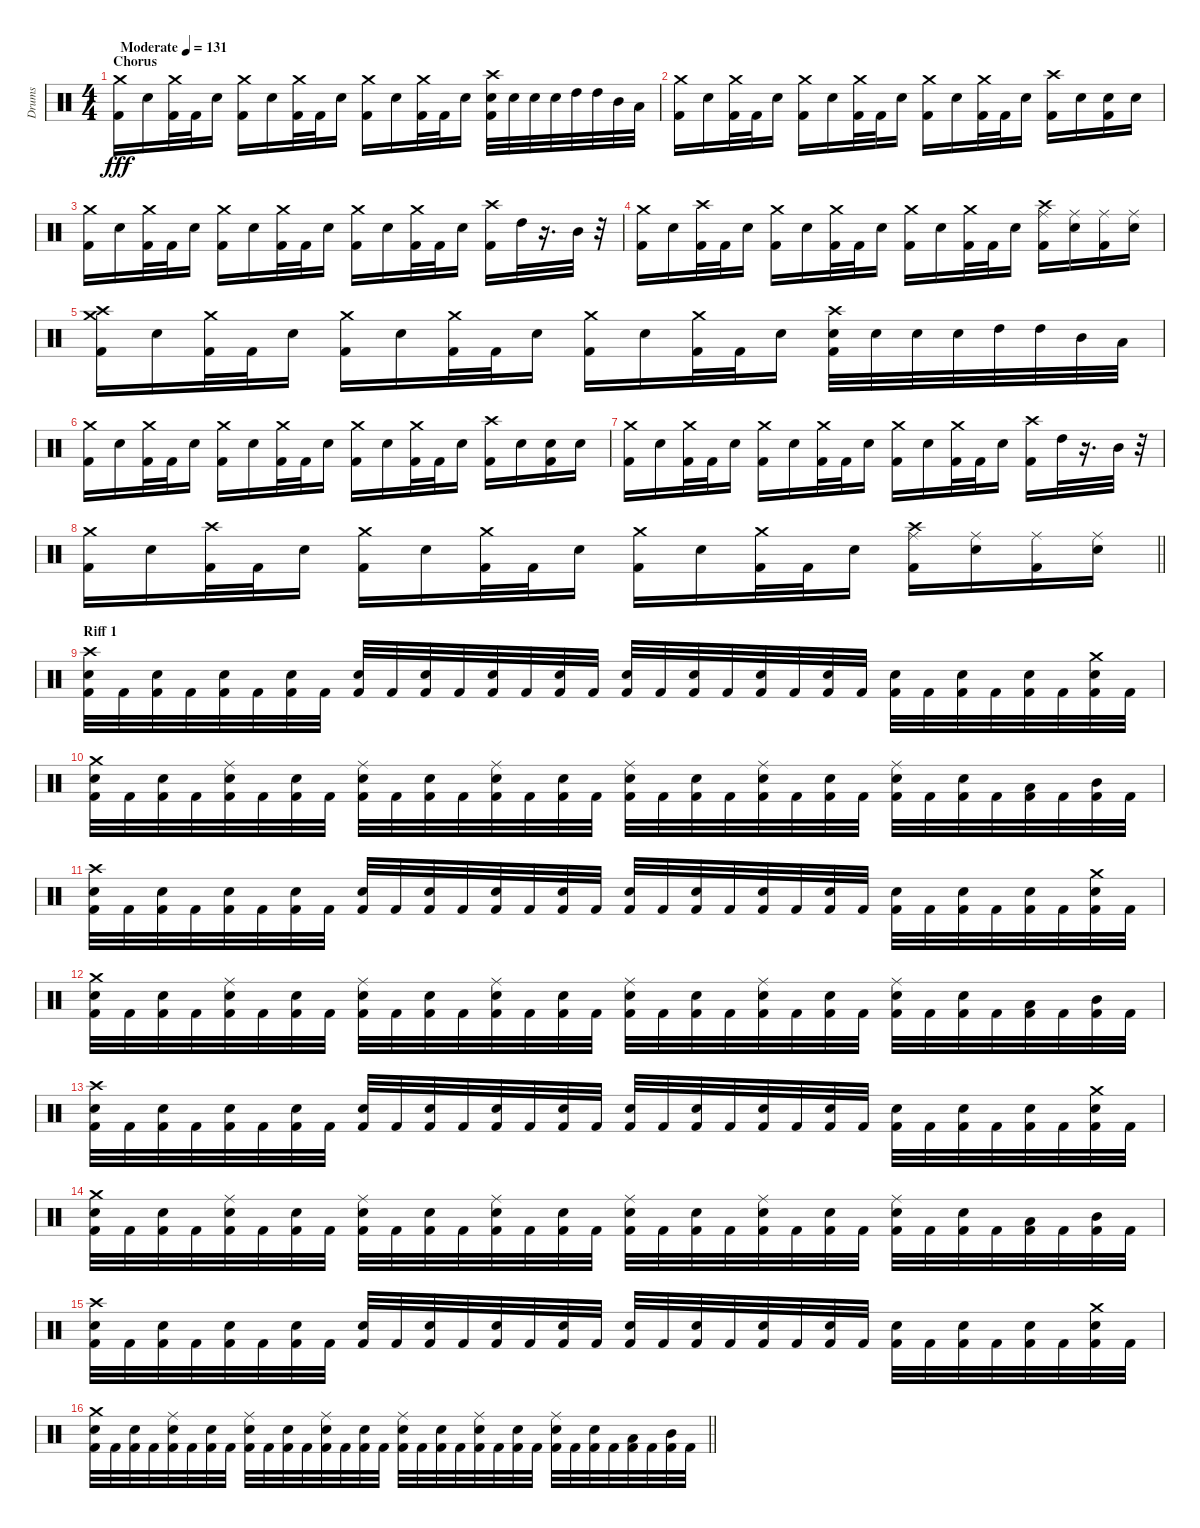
\track ("Drums" "Drums") {instrument percussion}
\staff {score}
\articulation defaults
\ts (4 4)
\section ("" "Chorus")
\tempo (131 "Moderate")
\clef neutral
\ks c
("Crash medium (hit)" "Kick (hit) 2").16{dy fff} "Snare (hit) 2".16 ("Crash medium (hit)" "Kick (hit) 2").32 "Kick (hit) 2".32 "Snare (hit) 2".16 ("Crash medium (hit)" "Kick (hit) 2").16 "Snare (hit) 2".16 ("Crash medium (hit)" "Kick (hit) 2").32 "Kick (hit) 2".32 "Snare (hit) 2".16 ("Crash medium (hit)" "Kick (hit) 2").16 "Snare (hit) 2".16 ("Crash medium (hit)" "Kick (hit) 2").32 "Kick (hit) 2".32 "Snare (hit) 2".16 ("Crash high (hit)" "Kick (hit) 2" "Snare (hit) 2").32 "Snare (hit) 2".32 "Snare (hit) 2".32 "Snare (hit) 2".32 "High Tom (hit)".32 "High Tom (hit)".32 "Mid Tom (hit)".32 "Low Tom (hit)".32 |
("Crash medium (hit)" "Kick (hit) 2").16 "Snare (hit) 2".16 ("Crash medium (hit)" "Kick (hit) 2").32 "Kick (hit) 2".32 "Snare (hit) 2".16 ("Crash medium (hit)" "Kick (hit) 2").16 "Snare (hit) 2".16 ("Crash medium (hit)" "Kick (hit) 2").32 "Kick (hit) 2".32 "Snare (hit) 2".16 ("Crash medium (hit)" "Kick (hit) 2").16 "Snare (hit) 2".16 ("Crash medium (hit)" "Kick (hit) 2").32 "Kick (hit) 2".32 "Snare (hit) 2".16 ("Crash high (hit)" "Kick (hit) 2").16 "Snare (hit) 2".16 ("Kick (hit) 2" "Snare (hit) 2").16 "Snare (hit) 2".16 |
("Crash medium (hit)" "Kick (hit) 2").16 "Snare (hit) 2".16 ("Crash medium (hit)" "Kick (hit) 2").32 "Kick (hit) 2".32 "Snare (hit) 2".16 ("Crash medium (hit)" "Kick (hit) 2").16 "Snare (hit) 2".16 ("Crash medium (hit)" "Kick (hit) 2").32 "Kick (hit) 2".32 "Snare (hit) 2".16 ("Crash medium (hit)" "Kick (hit) 2").16 "Snare (hit) 2".16 ("Crash medium (hit)" "Kick (hit) 2").32 "Kick (hit) 2".32 "Snare (hit) 2".16 ("Crash high (hit)" "Kick (hit) 2").16 "High Tom (hit)".32 r.16{d} "Mid Tom (hit)".32 r.32 |
("Crash medium (hit)" "Kick (hit) 2").16 "Snare (hit) 2".16 ("Crash high (hit)" "Kick (hit) 2").32 "Kick (hit) 2".32 "Snare (hit) 2".16 ("Crash medium (hit)" "Kick (hit) 2").16 "Snare (hit) 2".16 ("Crash medium (hit)" "Kick (hit) 2").32 "Kick (hit) 2".32 "Snare (hit) 2".16 ("Crash medium (hit)" "Kick (hit) 2").16 "Snare (hit) 2".16 ("Crash medium (hit)" "Kick (hit) 2").32 "Kick (hit) 2".32 "Snare (hit) 2".16 ("Crash high (hit)" "Kick (hit) 2" "Ride (middle)").16 ("Snare (hit) 2" "Ride (middle)").16 ("Kick (hit) 2" "Ride (middle)").16 ("Snare (hit) 2" "Ride (middle)").16 |
("Crash high (hit)" "Crash medium (hit)" "Kick (hit) 2").16 "Snare (hit) 2".16 ("Crash medium (hit)" "Kick (hit) 2").32 "Kick (hit) 2".32 "Snare (hit) 2".16 ("Crash medium (hit)" "Kick (hit) 2").16 "Snare (hit) 2".16 ("Crash medium (hit)" "Kick (hit) 2").32 "Kick (hit) 2".32 "Snare (hit) 2".16 ("Crash medium (hit)" "Kick (hit) 2").16 "Snare (hit) 2".16 ("Crash medium (hit)" "Kick (hit) 2").32 "Kick (hit) 2".32 "Snare (hit) 2".16 ("Crash high (hit)" "Kick (hit) 2" "Snare (hit) 2").32 "Snare (hit) 2".32 "Snare (hit) 2".32 "Snare (hit) 2".32 "High Tom (hit)".32 "High Tom (hit)".32 "Mid Tom (hit)".32 "Low Tom (hit)".32 |
("Crash medium (hit)" "Kick (hit) 2").16 "Snare (hit) 2".16 ("Crash medium (hit)" "Kick (hit) 2").32 "Kick (hit) 2".32 "Snare (hit) 2".16 ("Crash medium (hit)" "Kick (hit) 2").16 "Snare (hit) 2".16 ("Crash medium (hit)" "Kick (hit) 2").32 "Kick (hit) 2".32 "Snare (hit) 2".16 ("Crash medium (hit)" "Kick (hit) 2").16 "Snare (hit) 2".16 ("Crash medium (hit)" "Kick (hit) 2").32 "Kick (hit) 2".32 "Snare (hit) 2".16 ("Crash high (hit)" "Kick (hit) 2").16 "Snare (hit) 2".16 ("Kick (hit) 2" "Snare (hit) 2").16 "Snare (hit) 2".16 |
("Crash medium (hit)" "Kick (hit) 2").16 "Snare (hit) 2".16 ("Crash medium (hit)" "Kick (hit) 2").32 "Kick (hit) 2".32 "Snare (hit) 2".16 ("Crash medium (hit)" "Kick (hit) 2").16 "Snare (hit) 2".16 ("Crash medium (hit)" "Kick (hit) 2").32 "Kick (hit) 2".32 "Snare (hit) 2".16 ("Crash medium (hit)" "Kick (hit) 2").16 "Snare (hit) 2".16 ("Crash medium (hit)" "Kick (hit) 2").32 "Kick (hit) 2".32 "Snare (hit) 2".16 ("Crash high (hit)" "Kick (hit) 2").16 "High Tom (hit)".32 r.16{d} "Mid Tom (hit)".32 r.32 |
\barLineRight lightlight
("Crash medium (hit)" "Kick (hit) 2").16 "Snare (hit) 2".16 ("Crash high (hit)" "Kick (hit) 2").32 "Kick (hit) 2".32 "Snare (hit) 2".16 ("Crash medium (hit)" "Kick (hit) 2").16 "Snare (hit) 2".16 ("Crash medium (hit)" "Kick (hit) 2").32 "Kick (hit) 2".32 "Snare (hit) 2".16 ("Crash medium (hit)" "Kick (hit) 2").16 "Snare (hit) 2".16 ("Crash medium (hit)" "Kick (hit) 2").32 "Kick (hit) 2".32 "Snare (hit) 2".16 ("Crash high (hit)" "Kick (hit) 2" "Ride (middle)").16 ("Snare (hit) 2" "Ride (middle)").16 ("Kick (hit) 2" "Ride (middle)").16 ("Snare (hit) 2" "Ride (middle)").16 |
\section ("" "Riff 1")
("Crash high (hit)" "Kick (hit) 2" "Snare (hit) 2").32 "Kick (hit) 2".32 ("Kick (hit) 2" "Snare (hit) 2").32 "Kick (hit) 2".32 ("Kick (hit) 2" "Snare (hit) 2").32 "Kick (hit) 2".32 ("Kick (hit) 2" "Snare (hit) 2").32 "Kick (hit) 2".32 ("Kick (hit) 2" "Snare (hit) 2").32 "Kick (hit) 2".32 ("Kick (hit) 2" "Snare (hit) 2").32 "Kick (hit) 2".32 ("Kick (hit) 2" "Snare (hit) 2").32 "Kick (hit) 2".32 ("Kick (hit) 2" "Snare (hit) 2").32 "Kick (hit) 2".32 ("Kick (hit) 2" "Snare (hit) 2").32 "Kick (hit) 2".32 ("Kick (hit) 2" "Snare (hit) 2").32 "Kick (hit) 2".32 ("Kick (hit) 2" "Snare (hit) 2").32 "Kick (hit) 2".32 ("Kick (hit) 2" "Snare (hit) 2").32 "Kick (hit) 2".32 ("Kick (hit) 2" "Snare (hit) 2").32 "Kick (hit) 2".32 ("Kick (hit) 2" "Snare (hit) 2").32 "Kick (hit) 2".32 ("Kick (hit) 2" "Snare (hit) 2").32 "Kick (hit) 2".32 ("Crash medium (hit)" "Kick (hit) 2" "Snare (hit) 2").32 "Kick (hit) 2".32 |
("Crash medium (hit)" "Kick (hit) 2" "Snare (hit) 2").32 "Kick (hit) 2".32 ("Kick (hit) 2" "Snare (hit) 2").32 "Kick (hit) 2".32 ("Kick (hit) 2" "Snare (hit) 2" "Ride (middle)").32 "Kick (hit) 2".32 ("Kick (hit) 2" "Snare (hit) 2").32 "Kick (hit) 2".32 ("Kick (hit) 2" "Snare (hit) 2" "Ride (middle)").32 "Kick (hit) 2".32 ("Kick (hit) 2" "Snare (hit) 2").32 "Kick (hit) 2".32 ("Kick (hit) 2" "Snare (hit) 2" "Ride (middle)").32 "Kick (hit) 2".32 ("Kick (hit) 2" "Snare (hit) 2").32 "Kick (hit) 2".32 ("Kick (hit) 2" "Snare (hit) 2" "Ride (middle)").32 "Kick (hit) 2".32 ("Kick (hit) 2" "Snare (hit) 2").32 "Kick (hit) 2".32 ("Kick (hit) 2" "Snare (hit) 2" "Ride (middle)").32 "Kick (hit) 2".32 ("Kick (hit) 2" "Snare (hit) 2").32 "Kick (hit) 2".32 ("Kick (hit) 2" "Snare (hit) 2" "Ride (middle)").32 "Kick (hit) 2".32 ("Kick (hit) 2" "Snare (hit) 2").32 "Kick (hit) 2".32 ("Kick (hit) 2" "Low Tom (hit)").32 "Kick (hit) 2".32 ("Kick (hit) 2" "Mid Tom (hit)").32 "Kick (hit) 2".32 |
("Crash high (hit)" "Kick (hit) 2" "Snare (hit) 2").32 "Kick (hit) 2".32 ("Kick (hit) 2" "Snare (hit) 2").32 "Kick (hit) 2".32 ("Kick (hit) 2" "Snare (hit) 2").32 "Kick (hit) 2".32 ("Kick (hit) 2" "Snare (hit) 2").32 "Kick (hit) 2".32 ("Kick (hit) 2" "Snare (hit) 2").32 "Kick (hit) 2".32 ("Kick (hit) 2" "Snare (hit) 2").32 "Kick (hit) 2".32 ("Kick (hit) 2" "Snare (hit) 2").32 "Kick (hit) 2".32 ("Kick (hit) 2" "Snare (hit) 2").32 "Kick (hit) 2".32 ("Kick (hit) 2" "Snare (hit) 2").32 "Kick (hit) 2".32 ("Kick (hit) 2" "Snare (hit) 2").32 "Kick (hit) 2".32 ("Kick (hit) 2" "Snare (hit) 2").32 "Kick (hit) 2".32 ("Kick (hit) 2" "Snare (hit) 2").32 "Kick (hit) 2".32 ("Kick (hit) 2" "Snare (hit) 2").32 "Kick (hit) 2".32 ("Kick (hit) 2" "Snare (hit) 2").32 "Kick (hit) 2".32 ("Kick (hit) 2" "Snare (hit) 2").32 "Kick (hit) 2".32 ("Crash medium (hit)" "Kick (hit) 2" "Snare (hit) 2").32 "Kick (hit) 2".32 |
("Crash medium (hit)" "Kick (hit) 2" "Snare (hit) 2").32 "Kick (hit) 2".32 ("Kick (hit) 2" "Snare (hit) 2").32 "Kick (hit) 2".32 ("Kick (hit) 2" "Snare (hit) 2" "Ride (middle)").32 "Kick (hit) 2".32 ("Kick (hit) 2" "Snare (hit) 2").32 "Kick (hit) 2".32 ("Kick (hit) 2" "Snare (hit) 2" "Ride (middle)").32 "Kick (hit) 2".32 ("Kick (hit) 2" "Snare (hit) 2").32 "Kick (hit) 2".32 ("Kick (hit) 2" "Snare (hit) 2" "Ride (middle)").32 "Kick (hit) 2".32 ("Kick (hit) 2" "Snare (hit) 2").32 "Kick (hit) 2".32 ("Kick (hit) 2" "Snare (hit) 2" "Ride (middle)").32 "Kick (hit) 2".32 ("Kick (hit) 2" "Snare (hit) 2").32 "Kick (hit) 2".32 ("Kick (hit) 2" "Snare (hit) 2" "Ride (middle)").32 "Kick (hit) 2".32 ("Kick (hit) 2" "Snare (hit) 2").32 "Kick (hit) 2".32 ("Kick (hit) 2" "Snare (hit) 2" "Ride (middle)").32 "Kick (hit) 2".32 ("Kick (hit) 2" "Snare (hit) 2").32 "Kick (hit) 2".32 ("Kick (hit) 2" "Low Tom (hit)").32 "Kick (hit) 2".32 ("Kick (hit) 2" "Mid Tom (hit)").32 "Kick (hit) 2".32 |
("Crash high (hit)" "Kick (hit) 2" "Snare (hit) 2").32 "Kick (hit) 2".32 ("Kick (hit) 2" "Snare (hit) 2").32 "Kick (hit) 2".32 ("Kick (hit) 2" "Snare (hit) 2").32 "Kick (hit) 2".32 ("Kick (hit) 2" "Snare (hit) 2").32 "Kick (hit) 2".32 ("Kick (hit) 2" "Snare (hit) 2").32 "Kick (hit) 2".32 ("Kick (hit) 2" "Snare (hit) 2").32 "Kick (hit) 2".32 ("Kick (hit) 2" "Snare (hit) 2").32 "Kick (hit) 2".32 ("Kick (hit) 2" "Snare (hit) 2").32 "Kick (hit) 2".32 ("Kick (hit) 2" "Snare (hit) 2").32 "Kick (hit) 2".32 ("Kick (hit) 2" "Snare (hit) 2").32 "Kick (hit) 2".32 ("Kick (hit) 2" "Snare (hit) 2").32 "Kick (hit) 2".32 ("Kick (hit) 2" "Snare (hit) 2").32 "Kick (hit) 2".32 ("Kick (hit) 2" "Snare (hit) 2").32 "Kick (hit) 2".32 ("Kick (hit) 2" "Snare (hit) 2").32 "Kick (hit) 2".32 ("Kick (hit) 2" "Snare (hit) 2").32 "Kick (hit) 2".32 ("Crash medium (hit)" "Kick (hit) 2" "Snare (hit) 2").32 "Kick (hit) 2".32 |
("Crash medium (hit)" "Kick (hit) 2" "Snare (hit) 2").32 "Kick (hit) 2".32 ("Kick (hit) 2" "Snare (hit) 2").32 "Kick (hit) 2".32 ("Kick (hit) 2" "Snare (hit) 2" "Ride (middle)").32 "Kick (hit) 2".32 ("Kick (hit) 2" "Snare (hit) 2").32 "Kick (hit) 2".32 ("Kick (hit) 2" "Snare (hit) 2" "Ride (middle)").32 "Kick (hit) 2".32 ("Kick (hit) 2" "Snare (hit) 2").32 "Kick (hit) 2".32 ("Kick (hit) 2" "Snare (hit) 2" "Ride (middle)").32 "Kick (hit) 2".32 ("Kick (hit) 2" "Snare (hit) 2").32 "Kick (hit) 2".32 ("Kick (hit) 2" "Snare (hit) 2" "Ride (middle)").32 "Kick (hit) 2".32 ("Kick (hit) 2" "Snare (hit) 2").32 "Kick (hit) 2".32 ("Kick (hit) 2" "Snare (hit) 2" "Ride (middle)").32 "Kick (hit) 2".32 ("Kick (hit) 2" "Snare (hit) 2").32 "Kick (hit) 2".32 ("Kick (hit) 2" "Snare (hit) 2" "Ride (middle)").32 "Kick (hit) 2".32 ("Kick (hit) 2" "Snare (hit) 2").32 "Kick (hit) 2".32 ("Kick (hit) 2" "Low Tom (hit)").32 "Kick (hit) 2".32 ("Kick (hit) 2" "Mid Tom (hit)").32 "Kick (hit) 2".32 |
("Crash high (hit)" "Kick (hit) 2" "Snare (hit) 2").32 "Kick (hit) 2".32 ("Kick (hit) 2" "Snare (hit) 2").32 "Kick (hit) 2".32 ("Kick (hit) 2" "Snare (hit) 2").32 "Kick (hit) 2".32 ("Kick (hit) 2" "Snare (hit) 2").32 "Kick (hit) 2".32 ("Kick (hit) 2" "Snare (hit) 2").32 "Kick (hit) 2".32 ("Kick (hit) 2" "Snare (hit) 2").32 "Kick (hit) 2".32 ("Kick (hit) 2" "Snare (hit) 2").32 "Kick (hit) 2".32 ("Kick (hit) 2" "Snare (hit) 2").32 "Kick (hit) 2".32 ("Kick (hit) 2" "Snare (hit) 2").32 "Kick (hit) 2".32 ("Kick (hit) 2" "Snare (hit) 2").32 "Kick (hit) 2".32 ("Kick (hit) 2" "Snare (hit) 2").32 "Kick (hit) 2".32 ("Kick (hit) 2" "Snare (hit) 2").32 "Kick (hit) 2".32 ("Kick (hit) 2" "Snare (hit) 2").32 "Kick (hit) 2".32 ("Kick (hit) 2" "Snare (hit) 2").32 "Kick (hit) 2".32 ("Kick (hit) 2" "Snare (hit) 2").32 "Kick (hit) 2".32 ("Crash medium (hit)" "Kick (hit) 2" "Snare (hit) 2").32 "Kick (hit) 2".32 |
\barLineRight lightlight
("Crash medium (hit)" "Kick (hit) 2" "Snare (hit) 2").32 "Kick (hit) 2".32 ("Kick (hit) 2" "Snare (hit) 2").32 "Kick (hit) 2".32 ("Kick (hit) 2" "Snare (hit) 2" "Ride (middle)").32 "Kick (hit) 2".32 ("Kick (hit) 2" "Snare (hit) 2").32 "Kick (hit) 2".32 ("Kick (hit) 2" "Snare (hit) 2" "Ride (middle)").32 "Kick (hit) 2".32 ("Kick (hit) 2" "Snare (hit) 2").32 "Kick (hit) 2".32 ("Kick (hit) 2" "Snare (hit) 2" "Ride (middle)").32 "Kick (hit) 2".32 ("Kick (hit) 2" "Snare (hit) 2").32 "Kick (hit) 2".32 ("Kick (hit) 2" "Snare (hit) 2" "Ride (middle)").32 "Kick (hit) 2".32 ("Kick (hit) 2" "Snare (hit) 2").32 "Kick (hit) 2".32 ("Kick (hit) 2" "Snare (hit) 2" "Ride (middle)").32 "Kick (hit) 2".32 ("Kick (hit) 2" "Snare (hit) 2").32 "Kick (hit) 2".32 ("Kick (hit) 2" "Snare (hit) 2" "Ride (middle)").32 "Kick (hit) 2".32 ("Kick (hit) 2" "Snare (hit) 2").32 "Kick (hit) 2".32 ("Kick (hit) 2" "Low Tom (hit)").32 "Kick (hit) 2".32 ("Kick (hit) 2" "Mid Tom (hit)").32 "Kick (hit) 2".32
